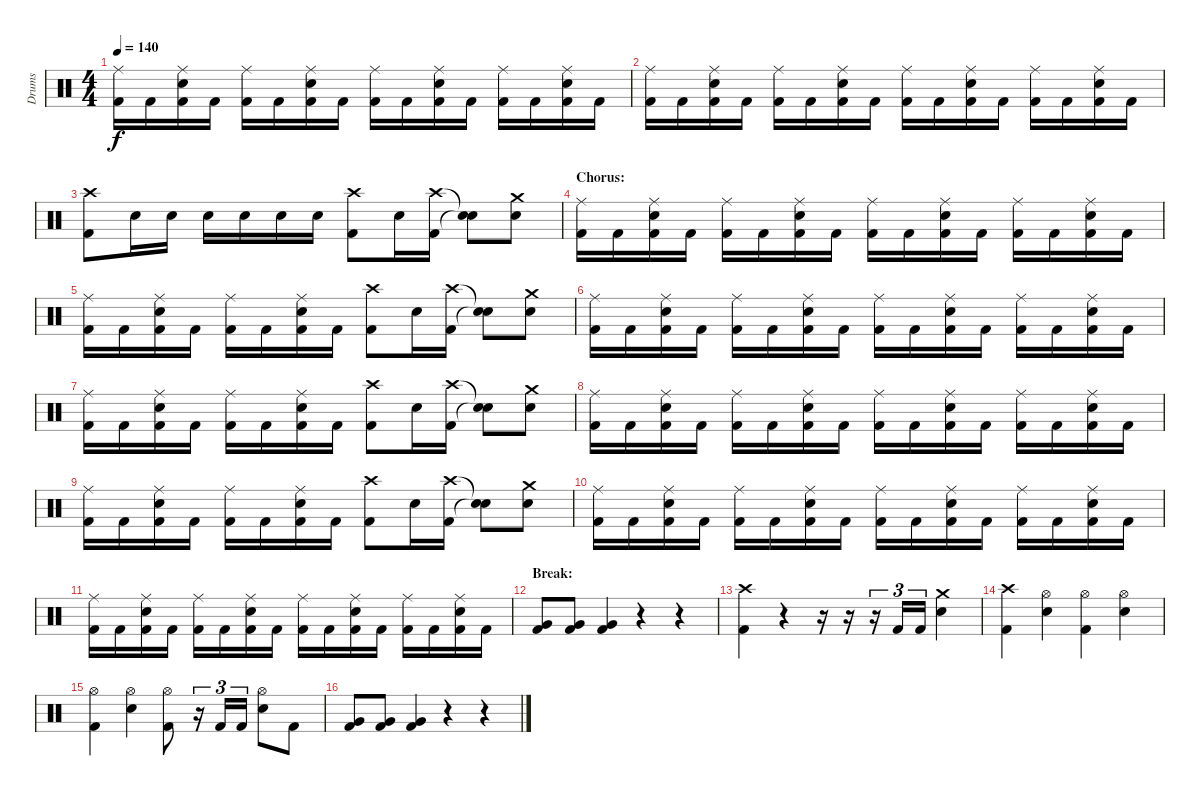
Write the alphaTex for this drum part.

\track ("Drums" "Drums") {instrument percussion}
\staff {score}
\articulation defaults
\ts (4 4)
\tempo 140
\clef neutral
\ks c
("Ride (middle)" "Kick (hit) 2").16{dy f} "Kick (hit) 2".16 ("Ride (middle)" "Snare (hit) 2" "Kick (hit) 2").16 "Kick (hit) 2".16 ("Ride (middle)" "Kick (hit) 2").16 "Kick (hit) 2".16 ("Ride (middle)" "Snare (hit) 2" "Kick (hit) 2").16 "Kick (hit) 2".16 ("Ride (middle)" "Kick (hit) 2").16 "Kick (hit) 2".16 ("Ride (middle)" "Snare (hit) 2" "Kick (hit) 2").16 "Kick (hit) 2".16 ("Ride (middle)" "Kick (hit) 2").16 "Kick (hit) 2".16 ("Ride (middle)" "Snare (hit) 2" "Kick (hit) 2").16 "Kick (hit) 2".16 |
("Ride (middle)" "Kick (hit) 2").16 "Kick (hit) 2".16 ("Ride (middle)" "Snare (hit) 2" "Kick (hit) 2").16 "Kick (hit) 2".16 ("Ride (middle)" "Kick (hit) 2").16 "Kick (hit) 2".16 ("Ride (middle)" "Snare (hit) 2" "Kick (hit) 2").16 "Kick (hit) 2".16 ("Ride (middle)" "Kick (hit) 2").16 "Kick (hit) 2".16 ("Ride (middle)" "Snare (hit) 2" "Kick (hit) 2").16 "Kick (hit) 2".16 ("Ride (middle)" "Kick (hit) 2").16 "Kick (hit) 2".16 ("Ride (middle)" "Snare (hit) 2" "Kick (hit) 2").16 "Kick (hit) 2".16 |
("Crash high (hit)" "Kick (hit) 2").8 "Snare (hit) 2".16 "Snare (hit) 2".16 "Snare (hit) 2".16 "Snare (hit) 2".16 "Snare (hit) 2".16 "Snare (hit) 2".16 ("Crash high (hit)" "Kick (hit) 2").8 "Snare (hit) 2".16 ("Crash high (hit)" "Kick (hit) 2").16 ("Snare (hit)"{t} "Snare (hit)"{t}).8 ("Crash medium (hit)" "Snare (hit) 2").8 |
\section ("" "Chorus:")
("Ride (middle)" "Kick (hit) 2").16 "Kick (hit) 2".16 ("Ride (middle)" "Snare (hit) 2" "Kick (hit) 2").16 "Kick (hit) 2".16 ("Ride (middle)" "Kick (hit) 2").16 "Kick (hit) 2".16 ("Ride (middle)" "Snare (hit) 2" "Kick (hit) 2").16 "Kick (hit) 2".16 ("Ride (middle)" "Kick (hit) 2").16 "Kick (hit) 2".16 ("Ride (middle)" "Snare (hit) 2" "Kick (hit) 2").16 "Kick (hit) 2".16 ("Ride (middle)" "Kick (hit) 2").16 "Kick (hit) 2".16 ("Ride (middle)" "Snare (hit) 2" "Kick (hit) 2").16 "Kick (hit) 2".16 |
("Ride (middle)" "Kick (hit) 2").16 "Kick (hit) 2".16 ("Ride (middle)" "Snare (hit) 2" "Kick (hit) 2").16 "Kick (hit) 2".16 ("Ride (middle)" "Kick (hit) 2").16 "Kick (hit) 2".16 ("Ride (middle)" "Snare (hit) 2" "Kick (hit) 2").16 "Kick (hit) 2".16 ("Crash high (hit)" "Kick (hit) 2").8 "Snare (hit) 2".16 ("Crash high (hit)" "Kick (hit) 2").16 ("Snare (hit)"{t} "Snare (hit)"{t}).8 ("Crash medium (hit)" "Snare (hit) 2").8 |
("Ride (middle)" "Kick (hit) 2").16 "Kick (hit) 2".16 ("Ride (middle)" "Snare (hit) 2" "Kick (hit) 2").16 "Kick (hit) 2".16 ("Ride (middle)" "Kick (hit) 2").16 "Kick (hit) 2".16 ("Ride (middle)" "Snare (hit) 2" "Kick (hit) 2").16 "Kick (hit) 2".16 ("Ride (middle)" "Kick (hit) 2").16 "Kick (hit) 2".16 ("Ride (middle)" "Snare (hit) 2" "Kick (hit) 2").16 "Kick (hit) 2".16 ("Ride (middle)" "Kick (hit) 2").16 "Kick (hit) 2".16 ("Ride (middle)" "Snare (hit) 2" "Kick (hit) 2").16 "Kick (hit) 2".16 |
("Ride (middle)" "Kick (hit) 2").16 "Kick (hit) 2".16 ("Ride (middle)" "Snare (hit) 2" "Kick (hit) 2").16 "Kick (hit) 2".16 ("Ride (middle)" "Kick (hit) 2").16 "Kick (hit) 2".16 ("Ride (middle)" "Snare (hit) 2" "Kick (hit) 2").16 "Kick (hit) 2".16 ("Crash high (hit)" "Kick (hit) 2").8 "Snare (hit) 2".16 ("Crash high (hit)" "Kick (hit) 2").16 ("Snare (hit)"{t} "Snare (hit)"{t}).8 ("Crash medium (hit)" "Snare (hit) 2").8 |
("Ride (middle)" "Kick (hit) 2").16 "Kick (hit) 2".16 ("Ride (middle)" "Snare (hit) 2" "Kick (hit) 2").16 "Kick (hit) 2".16 ("Ride (middle)" "Kick (hit) 2").16 "Kick (hit) 2".16 ("Ride (middle)" "Snare (hit) 2" "Kick (hit) 2").16 "Kick (hit) 2".16 ("Ride (middle)" "Kick (hit) 2").16 "Kick (hit) 2".16 ("Ride (middle)" "Snare (hit) 2" "Kick (hit) 2").16 "Kick (hit) 2".16 ("Ride (middle)" "Kick (hit) 2").16 "Kick (hit) 2".16 ("Ride (middle)" "Snare (hit) 2" "Kick (hit) 2").16 "Kick (hit) 2".16 |
("Ride (middle)" "Kick (hit) 2").16 "Kick (hit) 2".16 ("Ride (middle)" "Snare (hit) 2" "Kick (hit) 2").16 "Kick (hit) 2".16 ("Ride (middle)" "Kick (hit) 2").16 "Kick (hit) 2".16 ("Ride (middle)" "Snare (hit) 2" "Kick (hit) 2").16 "Kick (hit) 2".16 ("Crash high (hit)" "Kick (hit) 2").8 "Snare (hit) 2".16 ("Crash high (hit)" "Kick (hit) 2").16 ("Snare (hit)"{t} "Snare (hit)"{t}).8 ("Crash medium (hit)" "Snare (hit) 2").8 |
("Ride (middle)" "Kick (hit) 2").16 "Kick (hit) 2".16 ("Ride (middle)" "Snare (hit) 2" "Kick (hit) 2").16 "Kick (hit) 2".16 ("Ride (middle)" "Kick (hit) 2").16 "Kick (hit) 2".16 ("Ride (middle)" "Snare (hit) 2" "Kick (hit) 2").16 "Kick (hit) 2".16 ("Ride (middle)" "Kick (hit) 2").16 "Kick (hit) 2".16 ("Ride (middle)" "Snare (hit) 2" "Kick (hit) 2").16 "Kick (hit) 2".16 ("Ride (middle)" "Kick (hit) 2").16 "Kick (hit) 2".16 ("Ride (middle)" "Snare (hit) 2" "Kick (hit) 2").16 "Kick (hit) 2".16 |
("Ride (middle)" "Kick (hit) 2").16 "Kick (hit) 2".16 ("Ride (middle)" "Snare (hit) 2" "Kick (hit) 2").16 "Kick (hit) 2".16 ("Ride (middle)" "Kick (hit) 2").16 "Kick (hit) 2".16 ("Ride (middle)" "Snare (hit) 2" "Kick (hit) 2").16 "Kick (hit) 2".16 ("Ride (middle)" "Kick (hit) 2").16 "Kick (hit) 2".16 ("Ride (middle)" "Snare (hit) 2" "Kick (hit) 2").16 "Kick (hit) 2".16 ("Ride (middle)" "Kick (hit) 2").16 "Kick (hit) 2".16 ("Ride (middle)" "Snare (hit) 2" "Kick (hit) 2").16 "Kick (hit) 2".16 |
\section ("" "Break:")
("Very Low Tom (hit)" "Kick (hit) 2").8 ("Very Low Tom (hit)" "Kick (hit) 2").8 ("Very Low Tom (hit)" "Kick (hit) 2").4 r.4 r.4 |
("Crash high (hit)" "Kick (hit) 2").4 r.4 r.16 r.16 r.16{tu (3 2)} "Kick (hit) 2".16{tu (3 2)} "Kick (hit) 2".16{tu (3 2)} ("Crash medium (hit)" "Snare (hit) 2").4 |
("Crash high (hit)" "Kick (hit) 2").4 ("Hi-Hat (open)" "Snare (hit) 2").4 ("Hi-Hat (open)" "Kick (hit) 2").4 ("Hi-Hat (open)" "Snare (hit) 2").4 |
("Hi-Hat (open)" "Kick (hit) 2").4 ("Hi-Hat (open)" "Snare (hit) 2").4 ("Hi-Hat (open)" "Kick (hit) 2").8 r.16{tu (3 2)} "Kick (hit) 2".16{tu (3 2)} "Kick (hit) 2".16{tu (3 2)} ("Hi-Hat (open)" "Snare (hit) 2").8 "Kick (hit) 2".8 |
("Very Low Tom (hit)" "Kick (hit) 2").8 ("Very Low Tom (hit)" "Kick (hit) 2").8 ("Very Low Tom (hit)" "Kick (hit) 2").4 r.4 r.4
